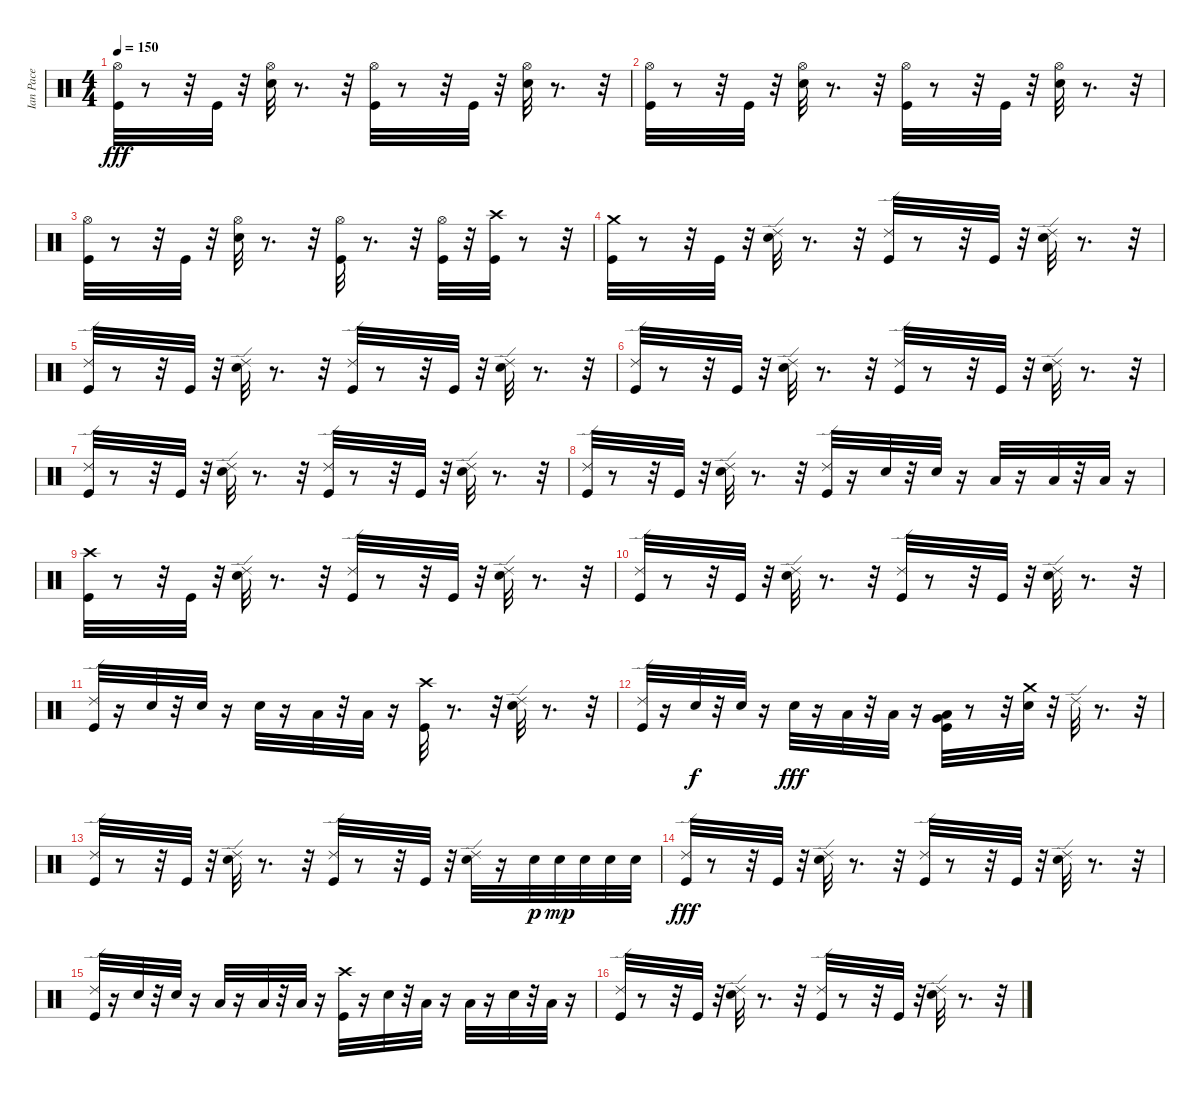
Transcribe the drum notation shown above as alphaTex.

\track ("Ian Pace" "Ian Pace") {instrument percussion}
\staff {score}
\articulation defaults
\ts (4 4)
\tempo 150
\clef neutral
\ks c
("Hi-Hat (open)" "Kick (hit)").32{dy fff} r.8 r.32 "Kick (hit)".32 r.32 ("Electric Snare (hit)" "Hi-Hat (open)").32 r.8{d} r.32 ("Hi-Hat (open)" "Kick (hit)").32 r.8 r.32 "Kick (hit)".32 r.32 ("Electric Snare (hit)" "Hi-Hat (open)").32 r.8{d} r.32 |
("Hi-Hat (open)" "Kick (hit)").32 r.8 r.32 "Kick (hit)".32 r.32 ("Hi-Hat (open)" "Electric Snare (hit)").32 r.8{d} r.32 ("Kick (hit)" "Hi-Hat (open)").32 r.8 r.32 "Kick (hit)".32 r.32 ("Electric Snare (hit)" "Hi-Hat (open)").32 r.8{d} r.32 |
("Hi-Hat (open)" "Kick (hit)").32 r.8 r.32 "Kick (hit)".32 r.32 ("Electric Snare (hit)" "Hi-Hat (open)").32 r.8{d} r.32 ("Hi-Hat (open)" "Kick (hit)").32 r.8{d} r.32 ("Kick (hit)" "Hi-Hat (open)").32 r.32 ("Crash high (hit)" "Kick (hit)").32 r.8 r.32 |
("Crash medium (hit)" "Kick (hit)").32 r.8 r.32 "Kick (hit)".32 r.32 ("Ride (edge) 2" "Electric Snare (hit)").32 r.8{d} r.32 ("Kick (hit)" "Ride (edge) 2").32 r.8 r.32 "Kick (hit)".32 r.32 ("Ride (edge) 2" "Electric Snare (hit)").32 r.8{d} r.32 |
("Kick (hit)" "Ride (edge) 2").32 r.8 r.32 "Kick (hit)".32 r.32 ("Electric Snare (hit)" "Ride (edge) 2").32 r.8{d} r.32 ("Kick (hit)" "Ride (edge) 2").32 r.8 r.32 "Kick (hit)".32 r.32 ("Electric Snare (hit)" "Ride (edge) 2").32 r.8{d} r.32 |
("Kick (hit)" "Ride (edge) 2").32 r.8 r.32 "Kick (hit)".32 r.32 ("Ride (edge) 2" "Electric Snare (hit)").32 r.8{d} r.32 ("Kick (hit)" "Ride (edge) 2").32 r.8 r.32 "Kick (hit)".32 r.32 ("Electric Snare (hit)" "Ride (edge) 2").32 r.8{d} r.32 |
("Kick (hit)" "Ride (edge) 2").32 r.8 r.32 "Kick (hit)".32 r.32 ("Ride (edge) 2" "Electric Snare (hit)").32 r.8{d} r.32 ("Kick (hit)" "Ride (edge) 2").32 r.8 r.32 "Kick (hit)".32 r.32 ("Electric Snare (hit)" "Ride (edge) 2").32 r.8{d} r.32 |
("Ride (edge) 2" "Kick (hit)").32 r.8 r.32 "Kick (hit)".32 r.32 ("Electric Snare (hit)" "Ride (edge) 2").32 r.8{d} r.32 ("Kick (hit)" "Ride (edge) 2").32 r.16 "Electric Snare (hit)".32 r.32 "Electric Snare (hit)".32 r.16 "Low Tom (hit)".32 r.16 "Low Tom (hit)".32 r.32 "Low Tom (hit)".32 r.16 |
("Kick (hit)" "Crash high (hit)").32 r.8 r.32 "Kick (hit)".32 r.32 ("Ride (edge) 2" "Electric Snare (hit)").32 r.8{d} r.32 ("Ride (edge) 2" "Kick (hit)").32 r.8 r.32 "Kick (hit)".32 r.32 ("Electric Snare (hit)" "Ride (edge) 2").32 r.8{d} r.32 |
("Kick (hit)" "Ride (edge) 2").32 r.8 r.32 "Kick (hit)".32 r.32 ("Ride (edge) 2" "Electric Snare (hit)").32 r.8{d} r.32 ("Kick (hit)" "Ride (edge) 2").32 r.8 r.32 "Kick (hit)".32 r.32 ("Electric Snare (hit)" "Ride (edge) 2").32 r.8{d} r.32 |
("Ride (edge) 2" "Kick (hit)").32 r.16 "Electric Snare (hit)".32 r.32 "Electric Snare (hit)".32 r.16 "Electric Snare (hit)".32 r.16 "Low Tom (hit)".32 r.32 "Low Tom (hit)".32 r.16 ("Crash high (hit)" "Kick (hit)").32 r.8{d} r.32 ("Ride (edge) 2" "Electric Snare (hit)").32 r.8{d} r.32 |
("Ride (edge) 2" "Kick (hit)").32 r.16 "Electric Snare (hit)".32{dy f} r.32 "Electric Snare (hit)".32 r.16 "Electric Snare (hit)".32{dy fff} r.16 "Low Tom (hit)".32 r.32 "Low Tom (hit)".32 r.16 ("Very Low Tom (hit)" "Kick (hit)" "Low Tom (hit)").32 r.8 r.32 ("Electric Snare (hit)" "Crash medium (hit)").32 r.32 "Ride (edge) 2".32 r.8{d} r.32 |
("Kick (hit)" "Ride (edge) 2").32 r.8 r.32 "Kick (hit)".32 r.32 ("Electric Snare (hit)" "Ride (edge) 2").32 r.8{d} r.32 ("Ride (edge) 2" "Kick (hit)").32 r.8 r.32 "Kick (hit)".32 r.32 ("Ride (edge) 2" "Electric Snare (hit)").32 r.16 "Electric Snare (hit)".32{dy p} "Electric Snare (hit)".32{dy mp} "Electric Snare (hit)".32 "Electric Snare (hit)".32 "Electric Snare (hit)".32 |
("Ride (edge) 2" "Kick (hit)").32{dy fff} r.8 r.32 "Kick (hit)".32 r.32 ("Electric Snare (hit)" "Ride (edge) 2").32 r.8{d} r.32 ("Kick (hit)" "Ride (edge) 2").32 r.8 r.32 "Kick (hit)".32 r.32 ("Electric Snare (hit)" "Ride (edge) 2").32 r.8{d} r.32 |
("Ride (edge) 2" "Kick (hit)").32 r.16 "Electric Snare (hit)".32 r.32 "Electric Snare (hit)".32 r.16 "Low Tom (hit)".32 r.16 "Low Tom (hit)".32 r.32 "Low Tom (hit)".32 r.16 ("Crash high (hit)" "Kick (hit)").32 r.16 "Electric Snare (hit)".32 r.32 "Low Tom (hit)".32 r.16 "Low Tom (hit)".32 r.16 "Electric Snare (hit)".32 r.32 "Low Tom (hit)".32 r.16 |
("Kick (hit)" "Ride (edge) 2").32 r.8 r.32 "Kick (hit)".32 r.32 ("Ride (edge) 2" "Electric Snare (hit)").32 r.8{d} r.32 ("Kick (hit)" "Ride (edge) 2").32 r.8 r.32 "Kick (hit)".32 r.32 ("Electric Snare (hit)" "Ride (edge) 2").32 r.8{d} r.32
